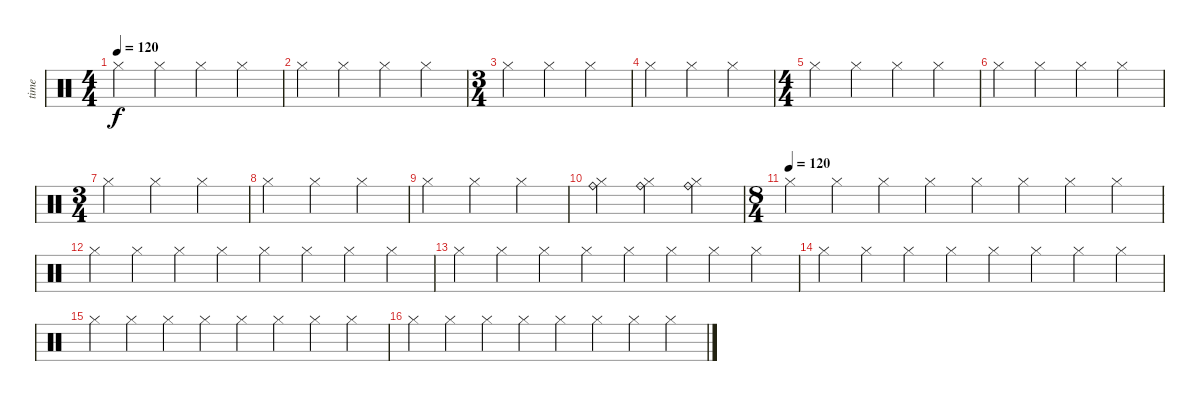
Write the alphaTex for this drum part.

\track ("time" "time") {instrument percussion}
\staff {score}
\articulation defaults
\ts (4 4)
\tempo 120
\clef neutral
\ks c "Hi-Hat (closed)".4{dy f} "Hi-Hat (closed)".4 "Hi-Hat (closed)".4 "Hi-Hat (closed)".4
|
"Hi-Hat (closed)".4 "Hi-Hat (closed)".4 "Hi-Hat (closed)".4 "Hi-Hat (closed)".4 |
\ts (3 4)
"Hi-Hat (closed)".4 "Hi-Hat (closed)".4 "Hi-Hat (closed)".4 |
"Hi-Hat (closed)".4 "Hi-Hat (closed)".4 "Hi-Hat (closed)".4 |
\ts (4 4)
"Hi-Hat (closed)".4 "Hi-Hat (closed)".4 "Hi-Hat (closed)".4 "Hi-Hat (closed)".4 |
"Hi-Hat (closed)".4 "Hi-Hat (closed)".4 "Hi-Hat (closed)".4 "Hi-Hat (closed)".4 |
\ts (3 4)
"Hi-Hat (closed)".4 "Hi-Hat (closed)".4 "Hi-Hat (closed)".4 |
"Hi-Hat (closed)".4 "Hi-Hat (closed)".4 "Hi-Hat (closed)".4 |
"Hi-Hat (closed)".4 "Hi-Hat (closed)".4 "Hi-Hat (closed)".4 |
("Ride (bell)" "Hi-Hat (closed)").4 ("Ride (bell)" "Hi-Hat (closed)").4 ("Ride (bell)" "Hi-Hat (closed)").4 |
\ts (8 4)
\tempo (120)
"Hi-Hat (closed)".4 "Hi-Hat (closed)".4 "Hi-Hat (closed)".4 "Hi-Hat (closed)".4 "Hi-Hat (closed)".4 "Hi-Hat (closed)".4 "Hi-Hat (closed)".4 "Hi-Hat (closed)".4 |
"Hi-Hat (closed)".4 "Hi-Hat (closed)".4 "Hi-Hat (closed)".4 "Hi-Hat (closed)".4 "Hi-Hat (closed)".4 "Hi-Hat (closed)".4 "Hi-Hat (closed)".4 "Hi-Hat (closed)".4 |
"Hi-Hat (closed)".4 "Hi-Hat (closed)".4 "Hi-Hat (closed)".4 "Hi-Hat (closed)".4 "Hi-Hat (closed)".4 "Hi-Hat (closed)".4 "Hi-Hat (closed)".4 "Hi-Hat (closed)".4 |
"Hi-Hat (closed)".4 "Hi-Hat (closed)".4 "Hi-Hat (closed)".4 "Hi-Hat (closed)".4 "Hi-Hat (closed)".4 "Hi-Hat (closed)".4 "Hi-Hat (closed)".4 "Hi-Hat (closed)".4 |
"Hi-Hat (closed)".4 "Hi-Hat (closed)".4 "Hi-Hat (closed)".4 "Hi-Hat (closed)".4 "Hi-Hat (closed)".4 "Hi-Hat (closed)".4 "Hi-Hat (closed)".4 "Hi-Hat (closed)".4 |
"Hi-Hat (closed)".4 "Hi-Hat (closed)".4 "Hi-Hat (closed)".4 "Hi-Hat (closed)".4 "Hi-Hat (closed)".4 "Hi-Hat (closed)".4 "Hi-Hat (closed)".4 "Hi-Hat (closed)".4
